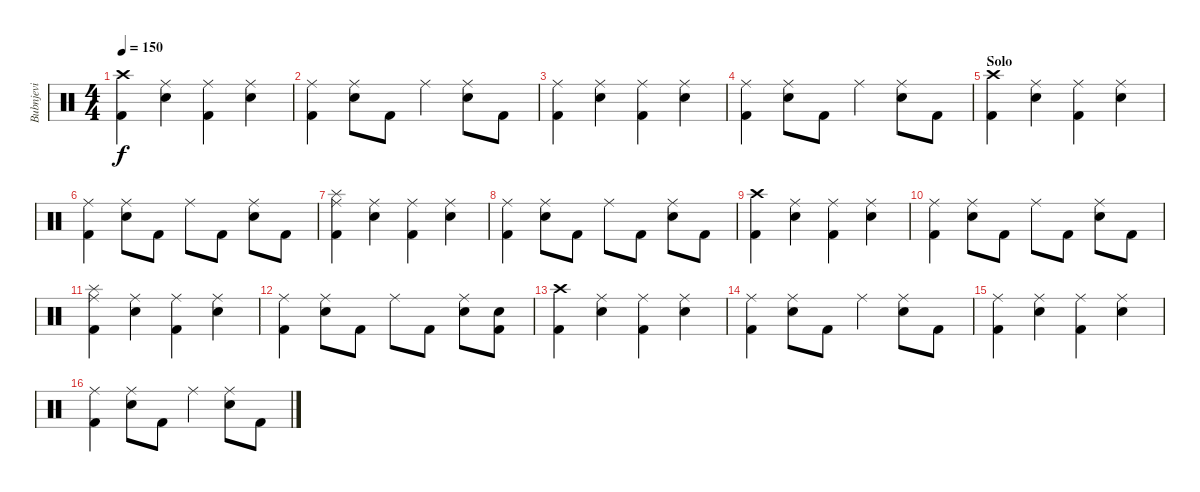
\track ("Bubnjevi" "Bubnjevi") {instrument percussion}
\staff {score}
\articulation defaults
\ts (4 4)
\tempo 150
\clef neutral
\ks c
("Crash high (hit)" "Kick (hit) 2").4{dy f} ("Ride (middle)" "Snare (hit) 2").4 ("Ride (middle)" "Kick (hit) 2").4 ("Ride (middle)" "Snare (hit) 2").4 |
("Ride (middle)" "Kick (hit) 2").4 ("Ride (middle)" "Snare (hit) 2").8 "Kick (hit) 2".8 "Ride (middle)".4 ("Ride (middle)" "Snare (hit) 2").8 "Kick (hit) 2".8 |
("Ride (middle)" "Kick (hit) 2").4 ("Ride (middle)" "Snare (hit) 2").4 ("Ride (middle)" "Kick (hit) 2").4 ("Ride (middle)" "Snare (hit) 2").4 |
("Ride (middle)" "Kick (hit) 2").4 ("Ride (middle)" "Snare (hit) 2").8 "Kick (hit) 2".8 "Ride (middle)".4 ("Ride (middle)" "Snare (hit) 2").8 "Kick (hit) 2".8 |
\section ("" "Solo")
("Crash high (hit)" "Kick (hit) 2").4 ("Ride (middle)" "Snare (hit) 2").4 ("Ride (middle)" "Kick (hit) 2").4 ("Ride (middle)" "Snare (hit) 2").4 |
("Ride (middle)" "Kick (hit) 2").4 ("Ride (middle)" "Snare (hit) 2").8 "Kick (hit) 2".8 "Ride (middle)".8 "Kick (hit) 2".8 ("Ride (middle)" "Snare (hit) 2").8 "Kick (hit) 2".8 |
("Splash (hit)" "Ride (middle)" "Kick (hit) 2").4 ("Ride (middle)" "Snare (hit) 2").4 ("Ride (middle)" "Kick (hit) 2").4 ("Ride (middle)" "Snare (hit) 2").4 |
("Ride (middle)" "Kick (hit) 2").4 ("Ride (middle)" "Snare (hit) 2").8 "Kick (hit) 2".8 "Ride (middle)".8 "Kick (hit) 2".8 ("Ride (middle)" "Snare (hit) 2").8 "Kick (hit) 2".8 |
("Crash high (hit)" "Kick (hit) 2").4 ("Ride (middle)" "Snare (hit) 2").4 ("Ride (middle)" "Kick (hit) 2").4 ("Ride (middle)" "Snare (hit) 2").4 |
("Ride (middle)" "Kick (hit) 2").4 ("Ride (middle)" "Snare (hit) 2").8 "Kick (hit) 2".8 "Ride (middle)".8 "Kick (hit) 2".8 ("Ride (middle)" "Snare (hit) 2").8 "Kick (hit) 2".8 |
("Splash (hit)" "Ride (middle)" "Kick (hit) 2").4 ("Ride (middle)" "Snare (hit) 2").4 ("Ride (middle)" "Kick (hit) 2").4 ("Ride (middle)" "Snare (hit) 2").4 |
("Ride (middle)" "Kick (hit) 2").4 ("Ride (middle)" "Snare (hit) 2").8 "Kick (hit) 2".8 "Ride (middle)".8 "Kick (hit) 2".8 ("Ride (middle)" "Snare (hit) 2").8 ("Snare (hit) 2" "Kick (hit) 2").8 |
("Crash high (hit)" "Kick (hit) 2").4 ("Ride (middle)" "Snare (hit) 2").4 ("Ride (middle)" "Kick (hit) 2").4 ("Ride (middle)" "Snare (hit) 2").4 |
("Ride (middle)" "Kick (hit) 2").4 ("Ride (middle)" "Snare (hit) 2").8 "Kick (hit) 2".8 "Ride (middle)".4 ("Ride (middle)" "Snare (hit) 2").8 "Kick (hit) 2".8 |
("Ride (middle)" "Kick (hit) 2").4 ("Ride (middle)" "Snare (hit) 2").4 ("Ride (middle)" "Kick (hit) 2").4 ("Ride (middle)" "Snare (hit) 2").4 |
("Ride (middle)" "Kick (hit) 2").4 ("Ride (middle)" "Snare (hit) 2").8 "Kick (hit) 2".8 "Ride (middle)".4 ("Ride (middle)" "Snare (hit) 2").8 "Kick (hit) 2".8
